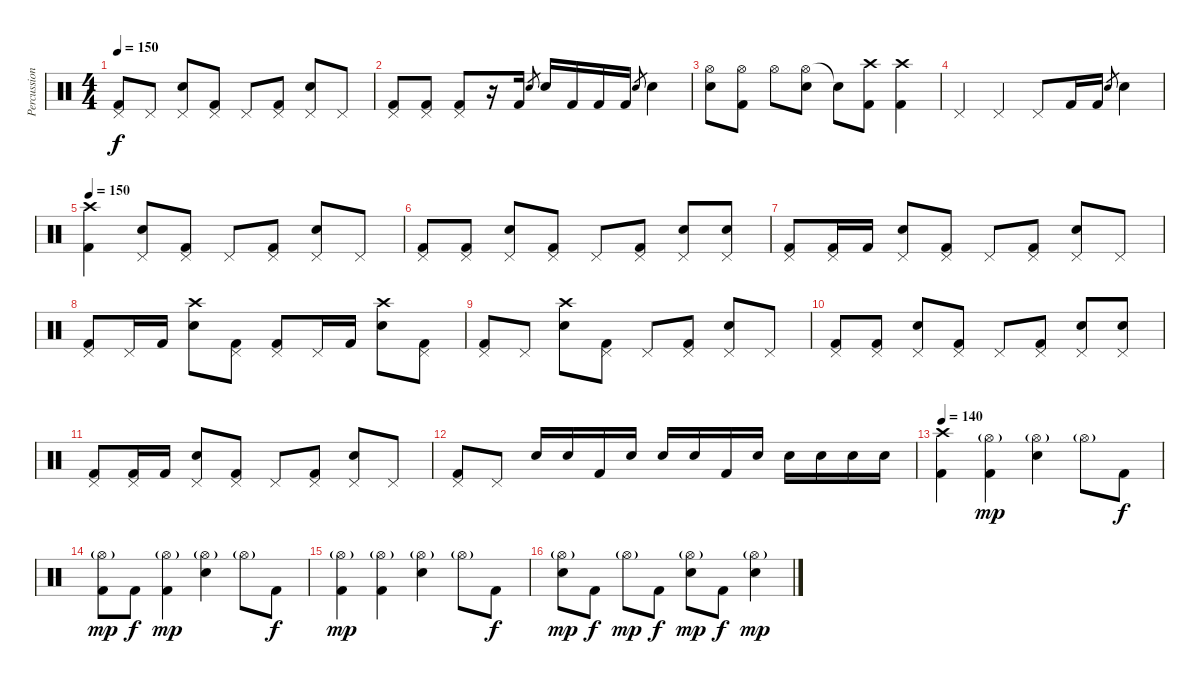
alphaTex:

\track ("Percussion" "Percussion") {instrument percussion}
\staff {score}
\articulation defaults
\ts (4 4)
\tempo 150
\clef neutral
\ks c
("Pedal Hi-Hat (hit)" "Kick (hit) 2").8{dy f} "Pedal Hi-Hat (hit)".8 ("Pedal Hi-Hat (hit)" "Snare (hit) 2").8 ("Pedal Hi-Hat (hit)" "Kick (hit) 2").8 "Pedal Hi-Hat (hit)".8 ("Pedal Hi-Hat (hit)" "Kick (hit) 2").8 ("Pedal Hi-Hat (hit)" "Snare (hit) 2").8 "Pedal Hi-Hat (hit)".8 |
("Pedal Hi-Hat (hit)" "Kick (hit) 2").8 ("Pedal Hi-Hat (hit)" "Kick (hit) 2").8 ("Pedal Hi-Hat (hit)" "Kick (hit) 2").8 r.16 "Kick (hit) 2".16 "Snare (hit) 2".8{gr} "Snare (hit) 2".16 "Kick (hit) 2".16 "Kick (hit) 2".16 "Kick (hit) 2".16 "Snare (hit) 2".8{gr} "Snare (hit) 2".4 |
("Hi-Hat (open)" "Snare (hit) 2").8 ("Hi-Hat (open)" "Kick (hit) 2").8 "Hi-Hat (open)".8 ("Hi-Hat (open)" "Snare (hit) 2").8 "Snare (hit)"{t}.8 ("Crash high (hit)" "Kick (hit) 2").8 ("Crash high (hit)" "Kick (hit) 2").4 |
"Pedal Hi-Hat (hit)".4 "Pedal Hi-Hat (hit)".4 "Pedal Hi-Hat (hit)".8 "Kick (hit) 2".16 "Kick (hit) 2".16 "Snare (hit) 2".8{gr} "Snare (hit) 2".4 |
\tempo 150
("Crash high (hit)" "Kick (hit) 2").4 ("Pedal Hi-Hat (hit)" "Snare (hit) 2").8 ("Pedal Hi-Hat (hit)" "Kick (hit) 2").8 "Pedal Hi-Hat (hit)".8 ("Pedal Hi-Hat (hit)" "Kick (hit) 2").8 ("Pedal Hi-Hat (hit)" "Snare (hit) 2").8 "Pedal Hi-Hat (hit)".8 |
("Pedal Hi-Hat (hit)" "Kick (hit) 2").8 ("Pedal Hi-Hat (hit)" "Kick (hit) 2").8 ("Pedal Hi-Hat (hit)" "Snare (hit) 2").8 ("Pedal Hi-Hat (hit)" "Kick (hit) 2").8 "Pedal Hi-Hat (hit)".8 ("Pedal Hi-Hat (hit)" "Kick (hit) 2").8 ("Pedal Hi-Hat (hit)" "Snare (hit) 2").8 ("Pedal Hi-Hat (hit)" "Snare (hit) 2").8 |
("Pedal Hi-Hat (hit)" "Kick (hit) 2").8 ("Pedal Hi-Hat (hit)" "Kick (hit) 2").16 "Kick (hit) 2".16 ("Pedal Hi-Hat (hit)" "Snare (hit) 2").8 ("Pedal Hi-Hat (hit)" "Kick (hit) 2").8 "Pedal Hi-Hat (hit)".8 ("Pedal Hi-Hat (hit)" "Kick (hit) 2").8 ("Pedal Hi-Hat (hit)" "Snare (hit) 2").8 "Pedal Hi-Hat (hit)".8 |
("Pedal Hi-Hat (hit)" "Kick (hit) 2").8 "Pedal Hi-Hat (hit)".16 "Kick (hit) 2".16 ("Crash high (hit)" "Snare (hit) 2").8 ("Pedal Hi-Hat (hit)" "Kick (hit) 2").8 ("Pedal Hi-Hat (hit)" "Kick (hit) 2").8 "Pedal Hi-Hat (hit)".16 "Kick (hit) 2".16 ("Crash high (hit)" "Snare (hit) 2").8 ("Pedal Hi-Hat (hit)" "Kick (hit) 2").8 |
("Pedal Hi-Hat (hit)" "Kick (hit) 2").8 "Pedal Hi-Hat (hit)".8 ("Crash high (hit)" "Snare (hit) 2").8 ("Pedal Hi-Hat (hit)" "Kick (hit) 2").8 "Pedal Hi-Hat (hit)".8 ("Pedal Hi-Hat (hit)" "Kick (hit) 2").8 ("Pedal Hi-Hat (hit)" "Snare (hit) 2").8 "Pedal Hi-Hat (hit)".8 |
("Pedal Hi-Hat (hit)" "Kick (hit) 2").8 ("Pedal Hi-Hat (hit)" "Kick (hit) 2").8 ("Pedal Hi-Hat (hit)" "Snare (hit) 2").8 ("Pedal Hi-Hat (hit)" "Kick (hit) 2").8 "Pedal Hi-Hat (hit)".8 ("Pedal Hi-Hat (hit)" "Kick (hit) 2").8 ("Pedal Hi-Hat (hit)" "Snare (hit) 2").8 ("Pedal Hi-Hat (hit)" "Snare (hit) 2").8 |
("Pedal Hi-Hat (hit)" "Kick (hit) 2").8 ("Pedal Hi-Hat (hit)" "Kick (hit) 2").16 "Kick (hit) 2".16 ("Pedal Hi-Hat (hit)" "Snare (hit) 2").8 ("Pedal Hi-Hat (hit)" "Kick (hit) 2").8 "Pedal Hi-Hat (hit)".8 ("Pedal Hi-Hat (hit)" "Kick (hit) 2").8 ("Pedal Hi-Hat (hit)" "Snare (hit) 2").8 "Pedal Hi-Hat (hit)".8 |
("Pedal Hi-Hat (hit)" "Kick (hit) 2").8 "Pedal Hi-Hat (hit)".8 "Snare (hit) 2".16 "Snare (hit) 2".16 "Kick (hit) 2".16 "Snare (hit) 2".16 "Snare (hit) 2".16 "Snare (hit) 2".16 "Kick (hit) 2".16 "Snare (hit) 2".16 "Snare (hit) 2".16 "Snare (hit) 2".16 "Snare (hit) 2".16 "Snare (hit) 2".16 |
\tempo 140
("Crash high (hit)" "Kick (hit) 2").4 ("Hi-Hat (open)"{g} "Kick (hit) 2").4{dy mp} ("Hi-Hat (open)"{g} "Snare (hit) 2").4 "Hi-Hat (open)"{g}.8 "Kick (hit) 2".8{dy f} |
("Hi-Hat (open)"{g} "Kick (hit) 2").8{dy mp} "Kick (hit) 2".8{dy f} ("Hi-Hat (open)"{g} "Kick (hit) 2").4{dy mp} ("Hi-Hat (open)"{g} "Snare (hit) 2").4 "Hi-Hat (open)"{g}.8 "Kick (hit) 2".8{dy f} |
("Hi-Hat (open)"{g} "Kick (hit) 2").4{dy mp} ("Hi-Hat (open)"{g} "Kick (hit) 2").4 ("Hi-Hat (open)"{g} "Snare (hit) 2").4 "Hi-Hat (open)"{g}.8 "Kick (hit) 2".8{dy f} |
("Hi-Hat (open)"{g} "Snare (hit) 2").8{dy mp} "Kick (hit) 2".8{dy f} "Hi-Hat (open)"{g}.8{dy mp} "Kick (hit) 2".8{dy f} ("Hi-Hat (open)"{g} "Snare (hit) 2").8{dy mp} "Kick (hit) 2".8{dy f} ("Hi-Hat (open)"{g} "Snare (hit) 2").4{dy mp}
